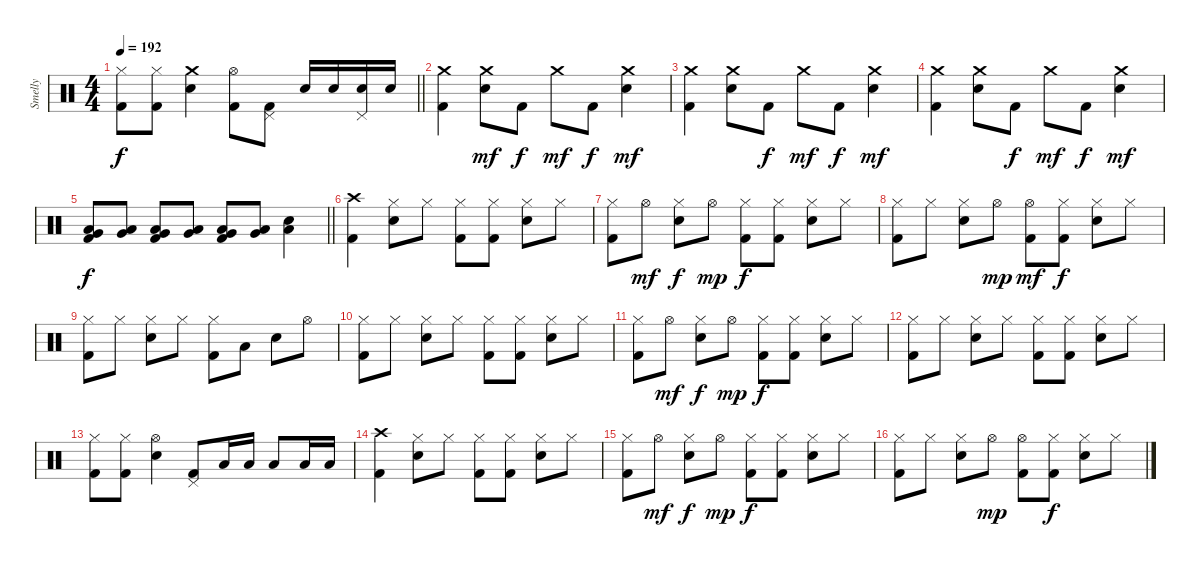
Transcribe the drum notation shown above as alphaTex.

\track ("Smelly" "Smelly") {instrument percussion}
\staff {score}
\articulation defaults
\ts (4 4)
\tempo 192
\clef neutral
\barLineRight lightlight
\ks c
("Hi-Hat (closed)" "Kick (hit) 2").8{dy f} ("Hi-Hat (closed)" "Kick (hit) 2").8 ("Crash medium (hit)" "Electric Snare (hit)").4 ("Hi-Hat (open)" "Kick (hit) 2").8 ("Pedal Hi-Hat (hit)" "Kick (hit) 2").8 "Electric Snare (hit)".16 "Electric Snare (hit)".16 ("Pedal Hi-Hat (hit)" "Electric Snare (hit)").16 "Electric Snare (hit)".16 |
\section ("" "")
("Crash medium (hit)" "Kick (hit) 2").4 ("Crash medium (hit)" "Electric Snare (hit)").8{dy mf} "Kick (hit) 2".8{dy f} "Crash medium (hit)".8{dy mf} "Kick (hit) 2".8{dy f} ("Crash medium (hit)" "Electric Snare (hit)").4{dy mf} |
("Crash medium (hit)" "Kick (hit) 2").4 ("Crash medium (hit)" "Electric Snare (hit)").8 "Kick (hit) 2".8{dy f} "Crash medium (hit)".8{dy mf} "Kick (hit) 2".8{dy f} ("Crash medium (hit)" "Electric Snare (hit)").4{dy mf} |
("Crash medium (hit)" "Kick (hit) 2").4 ("Crash medium (hit)" "Electric Snare (hit)").8 "Kick (hit) 2".8{dy f} "Crash medium (hit)".8{dy mf} "Kick (hit) 2".8{dy f} ("Crash medium (hit)" "Electric Snare (hit)").4{dy mf} |
\barLineRight lightlight
("Very Low Tom (hit)" "Low Floor Tom (hit)" "Kick (hit) 2").8{dy f} ("Very Low Tom (hit)" "Low Floor Tom (hit)").8 ("Very Low Tom (hit)" "Low Floor Tom (hit)" "Kick (hit) 2").8 ("Very Low Tom (hit)" "Low Floor Tom (hit)").8 ("Very Low Tom (hit)" "Low Floor Tom (hit)" "Kick (hit) 2").8 ("Very Low Tom (hit)" "Low Floor Tom (hit)").8 ("Electric Snare (hit)" "Low Floor Tom (hit)").4 |
\section ("" "")
("Crash high (hit)" "Kick (hit) 2").4 ("Hi-Hat (closed)" "Electric Snare (hit)").8 "Hi-Hat (closed)".8 ("Hi-Hat (closed)" "Kick (hit) 2").8 ("Hi-Hat (closed)" "Kick (hit) 2").8 ("Hi-Hat (closed)" "Electric Snare (hit)").8 "Hi-Hat (closed)".8 |
("Hi-Hat (closed)" "Kick (hit) 2").8 "Hi-Hat (open)".8{dy mf} ("Hi-Hat (closed)" "Electric Snare (hit)").8{dy f} "Hi-Hat (open)".8{dy mp} ("Hi-Hat (closed)" "Kick (hit) 2").8{dy f} ("Hi-Hat (closed)" "Kick (hit) 2").8 ("Hi-Hat (closed)" "Electric Snare (hit)").8 "Hi-Hat (closed)".8 |
("Hi-Hat (closed)" "Kick (hit) 2").8 "Hi-Hat (closed)".8 ("Hi-Hat (closed)" "Electric Snare (hit)").8 "Hi-Hat (open)".8{dy mp} ("Hi-Hat (open)" "Kick (hit) 2").8{dy mf} ("Hi-Hat (closed)" "Kick (hit) 2").8{dy f} ("Hi-Hat (closed)" "Electric Snare (hit)").8 "Hi-Hat (closed)".8 |
("Hi-Hat (closed)" "Kick (hit) 2").8 "Hi-Hat (closed)".8 ("Hi-Hat (closed)" "Electric Snare (hit)").8 "Hi-Hat (closed)".8 ("Hi-Hat (closed)" "Kick (hit) 2").8 "Low Tom (hit)".8 "Electric Snare (hit)".8 "Hi-Hat (open)".8 |
("Hi-Hat (closed)" "Kick (hit) 2").8 "Hi-Hat (closed)".8 ("Hi-Hat (closed)" "Electric Snare (hit)").8 "Hi-Hat (closed)".8 ("Hi-Hat (closed)" "Kick (hit) 2").8 ("Hi-Hat (closed)" "Kick (hit) 2").8 ("Hi-Hat (closed)" "Electric Snare (hit)").8 "Hi-Hat (closed)".8 |
("Hi-Hat (closed)" "Kick (hit) 2").8 "Hi-Hat (open)".8{dy mf} ("Hi-Hat (closed)" "Electric Snare (hit)").8{dy f} "Hi-Hat (open)".8{dy mp} ("Hi-Hat (closed)" "Kick (hit) 2").8{dy f} ("Hi-Hat (closed)" "Kick (hit) 2").8 ("Hi-Hat (closed)" "Electric Snare (hit)").8 "Hi-Hat (closed)".8 |
("Hi-Hat (closed)" "Kick (hit) 2").8 "Hi-Hat (closed)".8 ("Hi-Hat (closed)" "Electric Snare (hit)").8 "Hi-Hat (closed)".8 ("Hi-Hat (closed)" "Kick (hit) 2").8 ("Hi-Hat (closed)" "Kick (hit) 2").8 ("Hi-Hat (closed)" "Electric Snare (hit)").8 "Hi-Hat (closed)".8 |
("Hi-Hat (closed)" "Kick (hit) 2").8 ("Hi-Hat (closed)" "Kick (hit) 2").8 ("Hi-Hat (open)" "Electric Snare (hit)").4 ("Pedal Hi-Hat (hit)" "Kick (hit) 2").8 "Low Tom (hit)".16 "Low Tom (hit)".16 "Low Tom (hit)".8 "Low Floor Tom (hit)".16 "Low Floor Tom (hit)".16 |
("Crash high (hit)" "Kick (hit) 2").4 ("Hi-Hat (closed)" "Electric Snare (hit)").8 "Hi-Hat (closed)".8 ("Hi-Hat (closed)" "Kick (hit) 2").8 ("Hi-Hat (closed)" "Kick (hit) 2").8 ("Hi-Hat (closed)" "Electric Snare (hit)").8 "Hi-Hat (closed)".8 |
("Hi-Hat (closed)" "Kick (hit) 2").8 "Hi-Hat (open)".8{dy mf} ("Hi-Hat (closed)" "Electric Snare (hit)").8{dy f} "Hi-Hat (open)".8{dy mp} ("Hi-Hat (closed)" "Kick (hit) 2").8{dy f} ("Hi-Hat (closed)" "Kick (hit) 2").8 ("Hi-Hat (closed)" "Electric Snare (hit)").8 "Hi-Hat (closed)".8 |
("Hi-Hat (closed)" "Kick (hit) 2").8 "Hi-Hat (closed)".8 ("Hi-Hat (closed)" "Electric Snare (hit)").8 "Hi-Hat (open)".8{dy mp} ("Hi-Hat (open)" "Kick (hit) 2").8 ("Hi-Hat (closed)" "Kick (hit) 2").8{dy f} ("Hi-Hat (closed)" "Electric Snare (hit)").8 "Hi-Hat (closed)".8
